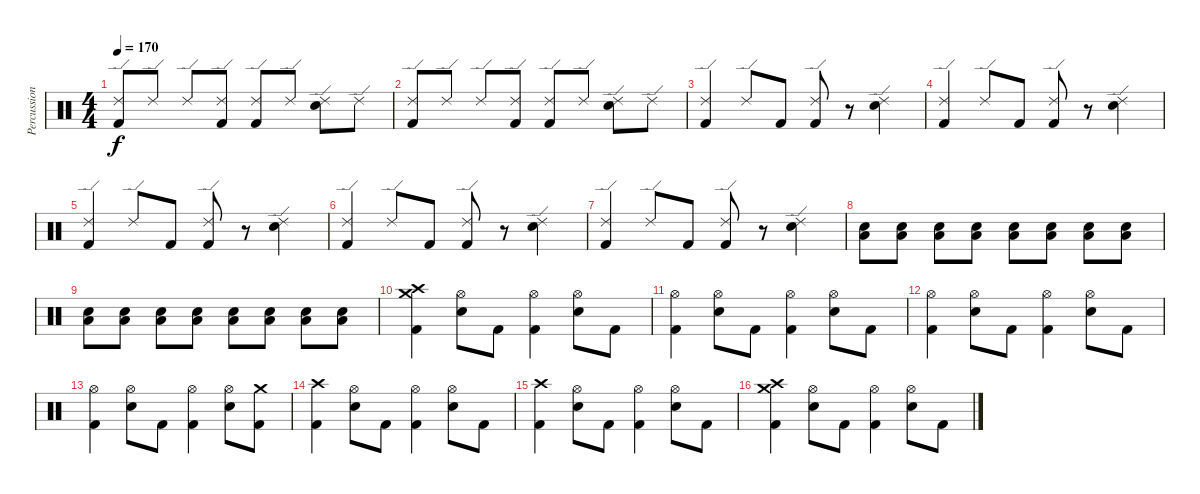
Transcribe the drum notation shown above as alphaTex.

\track ("Percussion" "Percussion") {instrument percussion}
\staff {score}
\articulation defaults
\ts (4 4)
\tempo 170
\clef neutral
\ks c
("Kick (hit) 2" "Ride (edge) 2").8{dy f} "Ride (edge) 2".8 "Ride (edge) 2".8 ("Kick (hit) 2" "Ride (edge) 2").8 ("Kick (hit) 2" "Ride (edge) 2").8 "Ride (edge) 2".8 ("Snare (hit) 2" "Ride (edge) 2").8 "Ride (edge) 2".8 |
("Kick (hit) 2" "Ride (edge) 2").8 "Ride (edge) 2".8 "Ride (edge) 2".8 ("Kick (hit) 2" "Ride (edge) 2").8 ("Kick (hit) 2" "Ride (edge) 2").8 "Ride (edge) 2".8 ("Snare (hit) 2" "Ride (edge) 2").8 "Ride (edge) 2".8 |
("Kick (hit) 2" "Ride (edge) 2").4 "Ride (edge) 2".8 "Kick (hit) 2".8 ("Kick (hit) 2" "Ride (edge) 2").8 r.8 ("Snare (hit) 2" "Ride (edge) 2").4 |
("Kick (hit) 2" "Ride (edge) 2").4 "Ride (edge) 2".8 "Kick (hit) 2".8 ("Kick (hit) 2" "Ride (edge) 2").8 r.8 ("Snare (hit) 2" "Ride (edge) 2").4 |
("Kick (hit) 2" "Ride (edge) 2").4 "Ride (edge) 2".8 "Kick (hit) 2".8 ("Kick (hit) 2" "Ride (edge) 2").8 r.8 ("Snare (hit) 2" "Ride (edge) 2").4 |
("Kick (hit) 2" "Ride (edge) 2").4 "Ride (edge) 2".8 "Kick (hit) 2".8 ("Kick (hit) 2" "Ride (edge) 2").8 r.8 ("Snare (hit) 2" "Ride (edge) 2").4 |
("Kick (hit) 2" "Ride (edge) 2").4 "Ride (edge) 2".8 "Kick (hit) 2".8 ("Kick (hit) 2" "Ride (edge) 2").8 r.8 ("Snare (hit) 2" "Ride (edge) 2").4 |
("Snare (hit) 2" "Low Tom (hit)").8 ("Snare (hit) 2" "Low Tom (hit)").8 ("Snare (hit) 2" "Low Tom (hit)").8 ("Snare (hit) 2" "Low Tom (hit)").8 ("Snare (hit) 2" "Low Tom (hit)").8 ("Snare (hit) 2" "Low Tom (hit)").8 ("Snare (hit) 2" "Low Tom (hit)").8 ("Snare (hit) 2" "Low Tom (hit)").8 |
("Snare (hit) 2" "Low Tom (hit)").8 ("Snare (hit) 2" "Low Tom (hit)").8 ("Snare (hit) 2" "Low Tom (hit)").8 ("Snare (hit) 2" "Low Tom (hit)").8 ("Snare (hit) 2" "Low Tom (hit)").8 ("Snare (hit) 2" "Low Tom (hit)").8 ("Snare (hit) 2" "Low Tom (hit)").8 ("Snare (hit) 2" "Low Tom (hit)").8 |
("Crash medium (hit)" "Crash high (hit)" "Kick (hit) 2").4 ("Hi-Hat (open)" "Snare (hit) 2").8 "Kick (hit) 2".8 ("Hi-Hat (open)" "Kick (hit) 2").4 ("Hi-Hat (open)" "Snare (hit) 2").8 "Kick (hit) 2".8 |
("Hi-Hat (open)" "Kick (hit) 2").4 ("Hi-Hat (open)" "Snare (hit) 2").8 "Kick (hit) 2".8 ("Hi-Hat (open)" "Kick (hit) 2").4 ("Hi-Hat (open)" "Snare (hit) 2").8 "Kick (hit) 2".8 |
("Hi-Hat (open)" "Kick (hit) 2").4 ("Hi-Hat (open)" "Snare (hit) 2").8 "Kick (hit) 2".8 ("Hi-Hat (open)" "Kick (hit) 2").4 ("Hi-Hat (open)" "Snare (hit) 2").8 "Kick (hit) 2".8 |
("Hi-Hat (open)" "Kick (hit) 2").4 ("Hi-Hat (open)" "Snare (hit) 2").8 "Kick (hit) 2".8 ("Hi-Hat (open)" "Kick (hit) 2").4 ("Hi-Hat (open)" "Snare (hit) 2").8 ("Crash medium (hit)" "Kick (hit) 2").8 |
("Crash high (hit)" "Kick (hit) 2").4 ("Hi-Hat (open)" "Snare (hit) 2").8 "Kick (hit) 2".8 ("Hi-Hat (open)" "Kick (hit) 2").4 ("Hi-Hat (open)" "Snare (hit) 2").8 "Kick (hit) 2".8 |
("Crash high (hit)" "Kick (hit) 2").4 ("Hi-Hat (open)" "Snare (hit) 2").8 "Kick (hit) 2".8 ("Hi-Hat (open)" "Kick (hit) 2").4 ("Hi-Hat (open)" "Snare (hit) 2").8 "Kick (hit) 2".8 |
("Crash medium (hit)" "Crash high (hit)" "Kick (hit) 2").4 ("Hi-Hat (open)" "Snare (hit) 2").8 "Kick (hit) 2".8 ("Hi-Hat (open)" "Kick (hit) 2").4 ("Hi-Hat (open)" "Snare (hit) 2").8 "Kick (hit) 2".8
